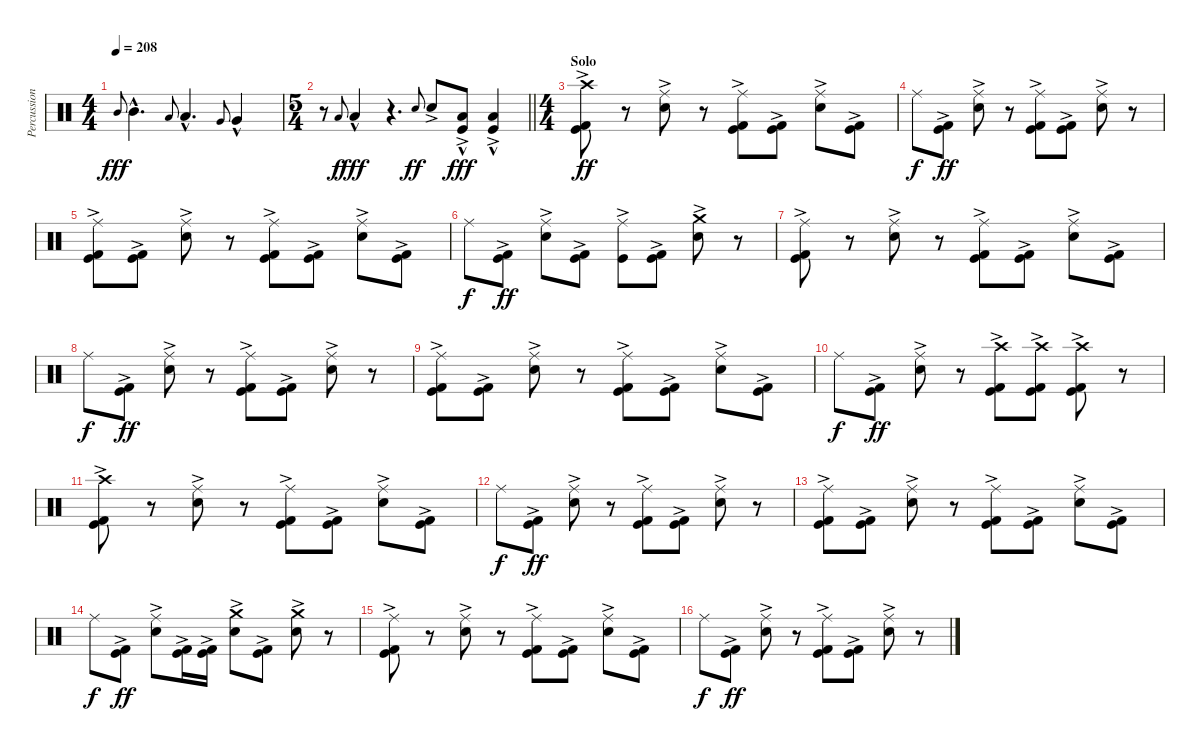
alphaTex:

\track ("Percussion" "Percussion") {instrument percussion}
\staff {score}
\articulation defaults
\ts (4 4)
\tempo 208
\clef neutral
\ks c "Mid Tom (hit)".8{gr onbeat dy fff} "Mid Tom (hit)"{hac}.4{d} "Low Tom (hit)".8{gr onbeat} "Low Tom (hit)"{hac}.4{d} "Very Low Tom (hit)".8{gr onbeat} "Very Low Tom (hit)"{hac}.4
|
\ts (5 4)
\barLineRight lightlight
r.8 "Low Floor Tom (hit)".8{gr onbeat dy f} "Low Floor Tom (hit)"{hac}.4{dy fff} r.4{d} "Snare (hit) 2".8{gr onbeat dy ff} "Snare (hit) 2"{ac}.8 ("Kick (hit)"{ac} "Low Floor Tom (hit)"{hac}).8{dy fff} ("Kick (hit)"{ac} "Low Floor Tom (hit)"{hac}).4 |
\ts (4 4)
\section ("" "Solo ")
("Kick (hit) 2"{ac} "Kick (hit)"{ac} "Crash high (hit)").8{dy ff} r.8 ("Snare (hit) 2"{ac} "Ride (middle)").8 r.8 ("Kick (hit) 2"{ac} "Kick (hit)"{ac} "Ride (middle)").8 ("Kick (hit) 2"{ac} "Kick (hit)"{ac}).8 ("Snare (hit) 2"{ac} "Ride (middle)").8 ("Kick (hit) 2"{ac} "Kick (hit)"{ac}).8 |
"Ride (middle)".8{dy f} ("Kick (hit)"{ac} "Kick (hit) 2"{ac}).8{dy ff} ("Snare (hit) 2"{ac} "Ride (middle)").8 r.8 ("Kick (hit) 2"{ac} "Kick (hit)"{ac} "Ride (middle)").8 ("Kick (hit) 2"{ac} "Kick (hit)"{ac}).8 ("Snare (hit) 2"{ac} "Ride (middle)").8 r.8 |
("Kick (hit) 2"{ac} "Kick (hit)"{ac} "Ride (middle)").8 ("Kick (hit) 2"{ac} "Kick (hit)"{ac}).8 ("Snare (hit) 2"{ac} "Ride (middle)").8 r.8 ("Kick (hit) 2"{ac} "Kick (hit)"{ac} "Ride (middle)").8 ("Kick (hit) 2"{ac} "Kick (hit)"{ac}).8 ("Snare (hit) 2"{ac} "Ride (middle)").8 ("Kick (hit)"{ac} "Kick (hit) 2"{ac}).8 |
"Ride (middle)".8{dy f} ("Kick (hit)"{ac} "Kick (hit) 2"{ac}).8{dy ff} ("Snare (hit) 2"{ac} "Ride (middle)").8 ("Kick (hit)"{ac} "Kick (hit) 2"{ac}).8 ("Kick (hit)"{ac} "Ride (middle)").8 ("Kick (hit)"{ac} "Kick (hit) 2"{ac}).8 ("Snare (hit) 2"{ac} "Crash medium (hit)").8 r.8 |
("Kick (hit) 2"{ac} "Kick (hit)"{ac} "Ride (middle)").8 r.8 ("Snare (hit) 2"{ac} "Ride (middle)").8 r.8 ("Kick (hit) 2"{ac} "Kick (hit)"{ac} "Ride (middle)").8 ("Kick (hit) 2"{ac} "Kick (hit)"{ac}).8 ("Snare (hit) 2"{ac} "Ride (middle)").8 ("Kick (hit) 2"{ac} "Kick (hit)"{ac}).8 |
"Ride (middle)".8{dy f} ("Kick (hit)"{ac} "Kick (hit) 2"{ac}).8{dy ff} ("Snare (hit) 2"{ac} "Ride (middle)").8 r.8 ("Kick (hit) 2"{ac} "Kick (hit)"{ac} "Ride (middle)").8 ("Kick (hit) 2"{ac} "Kick (hit)"{ac}).8 ("Snare (hit) 2"{ac} "Ride (middle)").8 r.8 |
("Kick (hit) 2"{ac} "Kick (hit)"{ac} "Ride (middle)").8 ("Kick (hit) 2"{ac} "Kick (hit)"{ac}).8 ("Snare (hit) 2"{ac} "Ride (middle)").8 r.8 ("Kick (hit) 2"{ac} "Kick (hit)"{ac} "Ride (middle)").8 ("Kick (hit) 2"{ac} "Kick (hit)"{ac}).8 ("Snare (hit) 2"{ac} "Ride (middle)").8 ("Kick (hit)"{ac} "Kick (hit) 2"{ac}).8 |
"Ride (middle)".8{dy f} ("Kick (hit)"{ac} "Kick (hit) 2"{ac}).8{dy ff} ("Snare (hit) 2"{ac} "Ride (middle)").8 r.8 ("Kick (hit) 2"{ac} "Kick (hit)"{ac} "Crash high (hit)").8 ("Kick (hit)"{ac} "Kick (hit) 2"{ac} "Crash high (hit)").8 ("Kick (hit)"{ac} "Kick (hit) 2" "Crash high (hit)").8 r.8 |
("Kick (hit) 2"{ac} "Kick (hit)"{ac} "Crash high (hit)").8 r.8 ("Snare (hit) 2"{ac} "Ride (middle)").8 r.8 ("Kick (hit) 2"{ac} "Kick (hit)"{ac} "Ride (middle)").8 ("Kick (hit) 2"{ac} "Kick (hit)"{ac}).8 ("Snare (hit) 2"{ac} "Ride (middle)").8 ("Kick (hit) 2"{ac} "Kick (hit)"{ac}).8 |
"Ride (middle)".8{dy f} ("Kick (hit)"{ac} "Kick (hit) 2"{ac}).8{dy ff} ("Snare (hit) 2"{ac} "Ride (middle)").8 r.8 ("Kick (hit) 2"{ac} "Kick (hit)"{ac} "Ride (middle)").8 ("Kick (hit) 2"{ac} "Kick (hit)"{ac}).8 ("Snare (hit) 2"{ac} "Ride (middle)").8 r.8 |
("Kick (hit) 2"{ac} "Kick (hit)"{ac} "Ride (middle)").8 ("Kick (hit) 2"{ac} "Kick (hit)"{ac}).8 ("Snare (hit) 2"{ac} "Ride (middle)").8 r.8 ("Kick (hit) 2"{ac} "Kick (hit)"{ac} "Ride (middle)").8 ("Kick (hit) 2"{ac} "Kick (hit)"{ac}).8 ("Snare (hit) 2"{ac} "Ride (middle)").8 ("Kick (hit)"{ac} "Kick (hit) 2"{ac}).8 |
"Ride (middle)".8{dy f} ("Kick (hit)"{ac} "Kick (hit) 2"{ac}).8{dy ff} ("Snare (hit) 2"{ac} "Ride (middle)").8 ("Kick (hit)"{ac} "Kick (hit) 2"{ac}).16 ("Kick (hit)"{ac} "Kick (hit) 2"{ac}).16 ("Snare (hit) 2"{ac} "Crash medium (hit)").8 ("Kick (hit)"{ac} "Kick (hit) 2"{ac}).8 ("Snare (hit) 2"{ac} "Crash medium (hit)").8 r.8 |
("Kick (hit) 2"{ac} "Kick (hit)"{ac} "Ride (middle)").8 r.8 ("Snare (hit) 2"{ac} "Ride (middle)").8 r.8 ("Kick (hit) 2"{ac} "Kick (hit)"{ac} "Ride (middle)").8 ("Kick (hit) 2"{ac} "Kick (hit)"{ac}).8 ("Snare (hit) 2"{ac} "Ride (middle)").8 ("Kick (hit) 2"{ac} "Kick (hit)"{ac}).8 |
"Ride (middle)".8{dy f} ("Kick (hit)"{ac} "Kick (hit) 2"{ac}).8{dy ff} ("Snare (hit) 2"{ac} "Ride (middle)").8 r.8 ("Kick (hit) 2"{ac} "Kick (hit)"{ac} "Ride (middle)").8 ("Kick (hit) 2"{ac} "Kick (hit)"{ac}).8 ("Snare (hit) 2"{ac} "Ride (middle)").8 r.8
